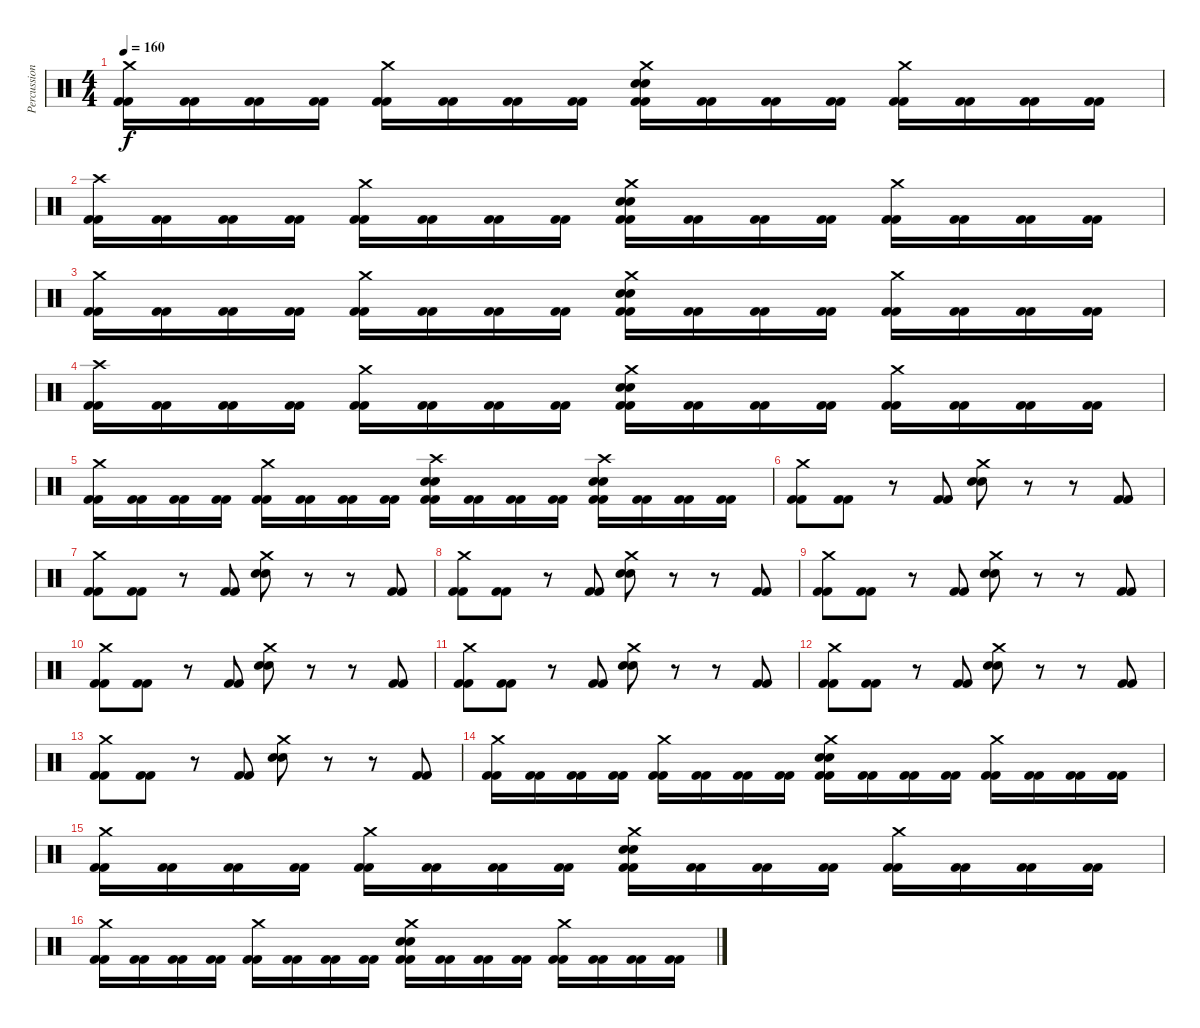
\track ("Percussion" "Percussion") {instrument percussion}
\staff {score}
\articulation defaults
\ts (4 4)
\tempo 160
\clef neutral
\ks c
("Crash medium (hit)" "Kick (hit) 2" "Kick (hit) 2").16{dy f} ("Kick (hit) 2" "Kick (hit) 2").16 ("Kick (hit) 2" "Kick (hit) 2").16 ("Kick (hit) 2" "Kick (hit) 2").16 ("Crash medium (hit)" "Kick (hit) 2" "Kick (hit) 2").16 ("Kick (hit) 2" "Kick (hit) 2").16 ("Kick (hit) 2" "Kick (hit) 2").16 ("Kick (hit) 2" "Kick (hit) 2").16 ("Crash medium (hit)" "Snare (hit) 2" "Snare (hit) 2" "Kick (hit) 2" "Kick (hit) 2").16 ("Kick (hit) 2" "Kick (hit) 2").16 ("Kick (hit) 2" "Kick (hit) 2").16 ("Kick (hit) 2" "Kick (hit) 2").16 ("Crash medium (hit)" "Kick (hit) 2" "Kick (hit) 2").16 ("Kick (hit) 2" "Kick (hit) 2").16 ("Kick (hit) 2" "Kick (hit) 2").16 ("Kick (hit) 2" "Kick (hit) 2").16 |
("Crash high (hit)" "Kick (hit) 2" "Kick (hit) 2").16 ("Kick (hit) 2" "Kick (hit) 2").16 ("Kick (hit) 2" "Kick (hit) 2").16 ("Kick (hit) 2" "Kick (hit) 2").16 ("Crash medium (hit)" "Kick (hit) 2" "Kick (hit) 2").16 ("Kick (hit) 2" "Kick (hit) 2").16 ("Kick (hit) 2" "Kick (hit) 2").16 ("Kick (hit) 2" "Kick (hit) 2").16 ("Crash medium (hit)" "Snare (hit) 2" "Snare (hit) 2" "Kick (hit) 2" "Kick (hit) 2").16 ("Kick (hit) 2" "Kick (hit) 2").16 ("Kick (hit) 2" "Kick (hit) 2").16 ("Kick (hit) 2" "Kick (hit) 2").16 ("Crash medium (hit)" "Kick (hit) 2" "Kick (hit) 2").16 ("Kick (hit) 2" "Kick (hit) 2").16 ("Kick (hit) 2" "Kick (hit) 2").16 ("Kick (hit) 2" "Kick (hit) 2").16 |
("Crash medium (hit)" "Kick (hit) 2" "Kick (hit) 2").16 ("Kick (hit) 2" "Kick (hit) 2").16 ("Kick (hit) 2" "Kick (hit) 2").16 ("Kick (hit) 2" "Kick (hit) 2").16 ("Crash medium (hit)" "Kick (hit) 2" "Kick (hit) 2").16 ("Kick (hit) 2" "Kick (hit) 2").16 ("Kick (hit) 2" "Kick (hit) 2").16 ("Kick (hit) 2" "Kick (hit) 2").16 ("Crash medium (hit)" "Snare (hit) 2" "Snare (hit) 2" "Kick (hit) 2" "Kick (hit) 2").16 ("Kick (hit) 2" "Kick (hit) 2").16 ("Kick (hit) 2" "Kick (hit) 2").16 ("Kick (hit) 2" "Kick (hit) 2").16 ("Crash medium (hit)" "Kick (hit) 2" "Kick (hit) 2").16 ("Kick (hit) 2" "Kick (hit) 2").16 ("Kick (hit) 2" "Kick (hit) 2").16 ("Kick (hit) 2" "Kick (hit) 2").16 |
("Crash high (hit)" "Kick (hit) 2" "Kick (hit) 2").16 ("Kick (hit) 2" "Kick (hit) 2").16 ("Kick (hit) 2" "Kick (hit) 2").16 ("Kick (hit) 2" "Kick (hit) 2").16 ("Crash medium (hit)" "Kick (hit) 2" "Kick (hit) 2").16 ("Kick (hit) 2" "Kick (hit) 2").16 ("Kick (hit) 2" "Kick (hit) 2").16 ("Kick (hit) 2" "Kick (hit) 2").16 ("Crash medium (hit)" "Snare (hit) 2" "Snare (hit) 2" "Kick (hit) 2" "Kick (hit) 2").16 ("Kick (hit) 2" "Kick (hit) 2").16 ("Kick (hit) 2" "Kick (hit) 2").16 ("Kick (hit) 2" "Kick (hit) 2").16 ("Crash medium (hit)" "Kick (hit) 2" "Kick (hit) 2").16 ("Kick (hit) 2" "Kick (hit) 2").16 ("Kick (hit) 2" "Kick (hit) 2").16 ("Kick (hit) 2" "Kick (hit) 2").16 |
("Crash medium (hit)" "Kick (hit) 2" "Kick (hit) 2").16 ("Kick (hit) 2" "Kick (hit) 2").16 ("Kick (hit) 2" "Kick (hit) 2").16 ("Kick (hit) 2" "Kick (hit) 2").16 ("Crash medium (hit)" "Kick (hit) 2" "Kick (hit) 2").16 ("Kick (hit) 2" "Kick (hit) 2").16 ("Kick (hit) 2" "Kick (hit) 2").16 ("Kick (hit) 2" "Kick (hit) 2").16 ("Crash high (hit)" "Snare (hit) 2" "Snare (hit) 2" "Kick (hit) 2" "Kick (hit) 2").16 ("Kick (hit) 2" "Kick (hit) 2").16 ("Kick (hit) 2" "Kick (hit) 2").16 ("Kick (hit) 2" "Kick (hit) 2").16 ("Crash high (hit)" "Snare (hit) 2" "Snare (hit) 2" "Kick (hit) 2" "Kick (hit) 2").16 ("Kick (hit) 2" "Kick (hit) 2").16 ("Kick (hit) 2" "Kick (hit) 2").16 ("Kick (hit) 2" "Kick (hit) 2").16 |
("Crash medium (hit)" "Kick (hit) 2" "Kick (hit) 2").8 ("Kick (hit) 2" "Kick (hit) 2").8 r.8 ("Kick (hit) 2" "Kick (hit) 2").8 ("Crash medium (hit)" "Snare (hit) 2" "Snare (hit) 2").8 r.8 r.8 ("Kick (hit) 2" "Kick (hit) 2").8 |
("Crash medium (hit)" "Kick (hit) 2" "Kick (hit) 2").8 ("Kick (hit) 2" "Kick (hit) 2").8 r.8 ("Kick (hit) 2" "Kick (hit) 2").8 ("Crash medium (hit)" "Snare (hit) 2" "Snare (hit) 2").8 r.8 r.8 ("Kick (hit) 2" "Kick (hit) 2").8 |
("Crash medium (hit)" "Kick (hit) 2" "Kick (hit) 2").8 ("Kick (hit) 2" "Kick (hit) 2").8 r.8 ("Kick (hit) 2" "Kick (hit) 2").8 ("Crash medium (hit)" "Snare (hit) 2" "Snare (hit) 2").8 r.8 r.8 ("Kick (hit) 2" "Kick (hit) 2").8 |
("Crash medium (hit)" "Kick (hit) 2" "Kick (hit) 2").8 ("Kick (hit) 2" "Kick (hit) 2").8 r.8 ("Kick (hit) 2" "Kick (hit) 2").8 ("Crash medium (hit)" "Snare (hit) 2" "Snare (hit) 2").8 r.8 r.8 ("Kick (hit) 2" "Kick (hit) 2").8 |
("Crash medium (hit)" "Kick (hit) 2" "Kick (hit) 2").8 ("Kick (hit) 2" "Kick (hit) 2").8 r.8 ("Kick (hit) 2" "Kick (hit) 2").8 ("Crash medium (hit)" "Snare (hit) 2" "Snare (hit) 2").8 r.8 r.8 ("Kick (hit) 2" "Kick (hit) 2").8 |
("Crash medium (hit)" "Kick (hit) 2" "Kick (hit) 2").8 ("Kick (hit) 2" "Kick (hit) 2").8 r.8 ("Kick (hit) 2" "Kick (hit) 2").8 ("Crash medium (hit)" "Snare (hit) 2" "Snare (hit) 2").8 r.8 r.8 ("Kick (hit) 2" "Kick (hit) 2").8 |
("Crash medium (hit)" "Kick (hit) 2" "Kick (hit) 2").8 ("Kick (hit) 2" "Kick (hit) 2").8 r.8 ("Kick (hit) 2" "Kick (hit) 2").8 ("Crash medium (hit)" "Snare (hit) 2" "Snare (hit) 2").8 r.8 r.8 ("Kick (hit) 2" "Kick (hit) 2").8 |
("Crash medium (hit)" "Kick (hit) 2" "Kick (hit) 2").8 ("Kick (hit) 2" "Kick (hit) 2").8 r.8 ("Kick (hit) 2" "Kick (hit) 2").8 ("Crash medium (hit)" "Snare (hit) 2" "Snare (hit) 2").8 r.8 r.8 ("Kick (hit) 2" "Kick (hit) 2").8 |
("Crash medium (hit)" "Kick (hit) 2" "Kick (hit) 2").16 ("Kick (hit) 2" "Kick (hit) 2").16 ("Kick (hit) 2" "Kick (hit) 2").16 ("Kick (hit) 2" "Kick (hit) 2").16 ("Crash medium (hit)" "Kick (hit) 2" "Kick (hit) 2").16 ("Kick (hit) 2" "Kick (hit) 2").16 ("Kick (hit) 2" "Kick (hit) 2").16 ("Kick (hit) 2" "Kick (hit) 2").16 ("Crash medium (hit)" "Snare (hit) 2" "Snare (hit) 2" "Kick (hit) 2" "Kick (hit) 2").16 ("Kick (hit) 2" "Kick (hit) 2").16 ("Kick (hit) 2" "Kick (hit) 2").16 ("Kick (hit) 2" "Kick (hit) 2").16 ("Crash medium (hit)" "Kick (hit) 2" "Kick (hit) 2").16 ("Kick (hit) 2" "Kick (hit) 2").16 ("Kick (hit) 2" "Kick (hit) 2").16 ("Kick (hit) 2" "Kick (hit) 2").16 |
("Crash medium (hit)" "Kick (hit) 2" "Kick (hit) 2").16 ("Kick (hit) 2" "Kick (hit) 2").16 ("Kick (hit) 2" "Kick (hit) 2").16 ("Kick (hit) 2" "Kick (hit) 2").16 ("Crash medium (hit)" "Kick (hit) 2" "Kick (hit) 2").16 ("Kick (hit) 2" "Kick (hit) 2").16 ("Kick (hit) 2" "Kick (hit) 2").16 ("Kick (hit) 2" "Kick (hit) 2").16 ("Crash medium (hit)" "Snare (hit) 2" "Snare (hit) 2" "Kick (hit) 2" "Kick (hit) 2").16 ("Kick (hit) 2" "Kick (hit) 2").16 ("Kick (hit) 2" "Kick (hit) 2").16 ("Kick (hit) 2" "Kick (hit) 2").16 ("Crash medium (hit)" "Kick (hit) 2" "Kick (hit) 2").16 ("Kick (hit) 2" "Kick (hit) 2").16 ("Kick (hit) 2" "Kick (hit) 2").16 ("Kick (hit) 2" "Kick (hit) 2").16 |
("Crash medium (hit)" "Kick (hit) 2" "Kick (hit) 2").16 ("Kick (hit) 2" "Kick (hit) 2").16 ("Kick (hit) 2" "Kick (hit) 2").16 ("Kick (hit) 2" "Kick (hit) 2").16 ("Crash medium (hit)" "Kick (hit) 2" "Kick (hit) 2").16 ("Kick (hit) 2" "Kick (hit) 2").16 ("Kick (hit) 2" "Kick (hit) 2").16 ("Kick (hit) 2" "Kick (hit) 2").16 ("Crash medium (hit)" "Snare (hit) 2" "Snare (hit) 2" "Kick (hit) 2" "Kick (hit) 2").16 ("Kick (hit) 2" "Kick (hit) 2").16 ("Kick (hit) 2" "Kick (hit) 2").16 ("Kick (hit) 2" "Kick (hit) 2").16 ("Crash medium (hit)" "Kick (hit) 2" "Kick (hit) 2").16 ("Kick (hit) 2" "Kick (hit) 2").16 ("Kick (hit) 2" "Kick (hit) 2").16 ("Kick (hit) 2" "Kick (hit) 2").16
